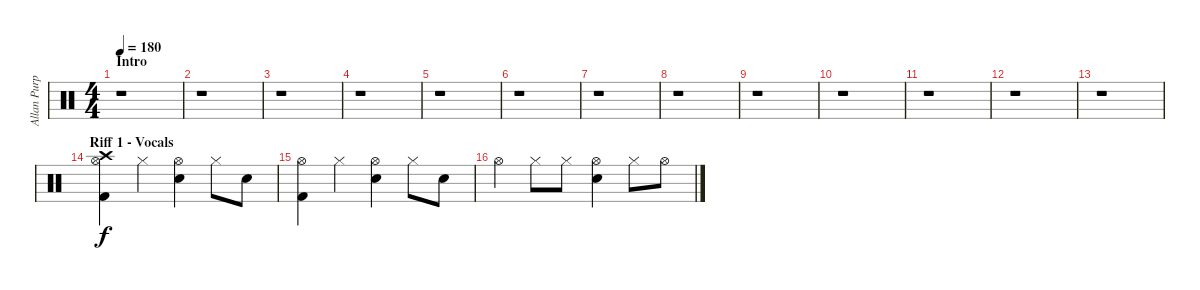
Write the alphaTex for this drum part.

\track ("Allan Purple" "Allan Purp") {instrument percussion}
\staff {score}
\articulation defaults
\ts (4 4)
\section ("" "Intro")
\tempo 180
\clef neutral
\ks c
r.1{dy f} |
r.1 |
r.1 |
r.1 |
r.1 |
r.1 |
r.1 |
r.1 |
r.1 |
r.1 |
r.1 |
r.1 |
r.1 |
\section ("" "Riff 1 - Vocals")
("Crash high (hit)" "Hi-Hat (open)" "Kick (hit) 2").4 "Hi-Hat (closed)".4 ("Hi-Hat (open)" "Snare (hit) 2").4 "Hi-Hat (closed)".8 "Snare (hit) 2".8 |
("Hi-Hat (open)" "Kick (hit) 2").4 "Hi-Hat (closed)".4 ("Hi-Hat (open)" "Snare (hit) 2").4 "Hi-Hat (closed)".8 "Snare (hit) 2".8 |
"Hi-Hat (open)".4 "Hi-Hat (closed)".8 "Hi-Hat (closed)".8 ("Hi-Hat (open)" "Snare (hit) 2").4 "Hi-Hat (closed)".8 "Hi-Hat (open)".8
